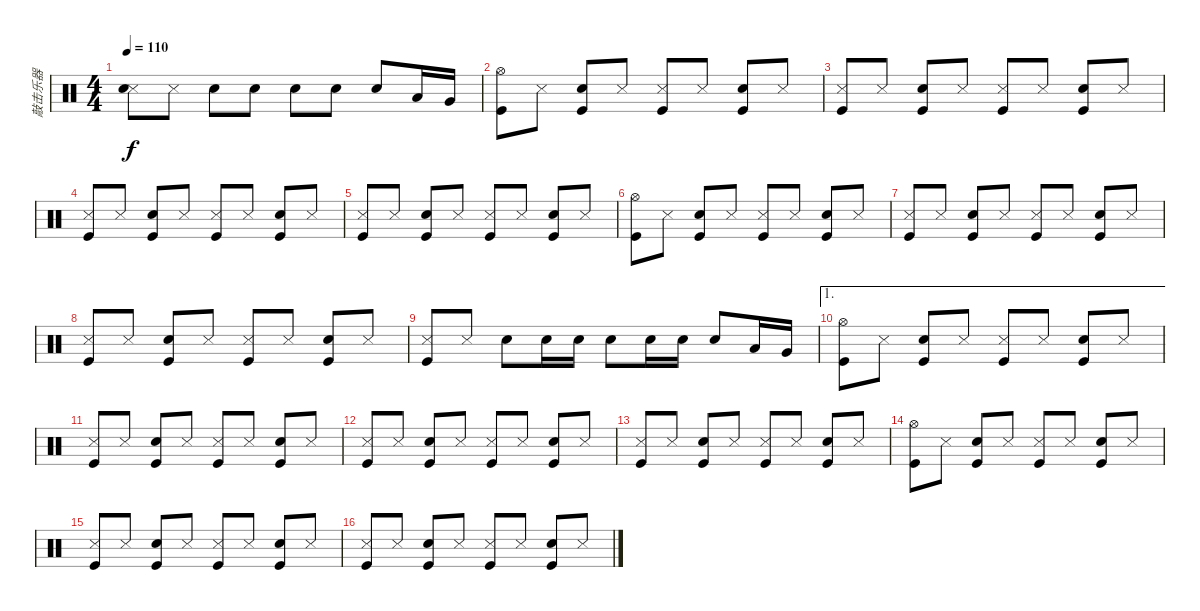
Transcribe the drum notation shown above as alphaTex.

\track ("敲击乐器" "敲击乐器") {instrument percussion}
\staff {score}
\articulation defaults
\ts (4 4)
\tempo 110
\clef neutral
\ks c
("Snare (side stick) 3" "Snare (hit) 2").8{dy f} "Snare (side stick) 3".8 "Snare (hit) 2".8 "Snare (hit) 2".8 "Snare (hit) 2".8 "Snare (hit) 2".8 "Snare (hit) 2".8 "Low Tom (hit)".16 "Very Low Tom (hit)".16 |
("Hi-Hat (open)" "Kick (hit)").8 "Snare (side stick) 3".8 ("Snare (hit) 2" "Kick (hit)").8 "Snare (side stick) 3".8 ("Snare (side stick) 3" "Kick (hit)").8 "Snare (side stick) 3".8 ("Snare (hit) 2" "Kick (hit)").8 "Snare (side stick) 3".8 |
("Snare (side stick) 3" "Kick (hit)").8 "Snare (side stick) 3".8 ("Snare (hit) 2" "Kick (hit)").8 "Snare (side stick) 3".8 ("Snare (side stick) 3" "Kick (hit)").8 "Snare (side stick) 3".8 ("Snare (hit) 2" "Kick (hit)").8 "Snare (side stick) 3".8 |
("Snare (side stick) 3" "Kick (hit)").8 "Snare (side stick) 3".8 ("Snare (hit) 2" "Kick (hit)").8 "Snare (side stick) 3".8 ("Snare (side stick) 3" "Kick (hit)").8 "Snare (side stick) 3".8 ("Snare (hit) 2" "Kick (hit)").8 "Snare (side stick) 3".8 |
("Snare (side stick) 3" "Kick (hit)").8 "Snare (side stick) 3".8 ("Snare (hit) 2" "Kick (hit)").8 "Snare (side stick) 3".8 ("Snare (side stick) 3" "Kick (hit)").8 "Snare (side stick) 3".8 ("Snare (hit) 2" "Kick (hit)").8 "Snare (side stick) 3".8 |
("Hi-Hat (open)" "Kick (hit)").8 "Snare (side stick) 3".8 ("Snare (hit) 2" "Kick (hit)").8 "Snare (side stick) 3".8 ("Snare (side stick) 3" "Kick (hit)").8 "Snare (side stick) 3".8 ("Snare (hit) 2" "Kick (hit)").8 "Snare (side stick) 3".8 |
("Snare (side stick) 3" "Kick (hit)").8 "Snare (side stick) 3".8 ("Snare (hit) 2" "Kick (hit)").8 "Snare (side stick) 3".8 ("Snare (side stick) 3" "Kick (hit)").8 "Snare (side stick) 3".8 ("Snare (hit) 2" "Kick (hit)").8 "Snare (side stick) 3".8 |
("Snare (side stick) 3" "Kick (hit)").8 "Snare (side stick) 3".8 ("Snare (hit) 2" "Kick (hit)").8 "Snare (side stick) 3".8 ("Snare (side stick) 3" "Kick (hit)").8 "Snare (side stick) 3".8 ("Snare (hit) 2" "Kick (hit)").8 "Snare (side stick) 3".8 |
("Snare (side stick) 3" "Kick (hit)").8 "Snare (side stick) 3".8 "Snare (hit) 2".8 "Snare (hit) 2".16 "Snare (hit) 2".16 "Snare (hit) 2".8 "Snare (hit) 2".16 "Snare (hit) 2".16 "Snare (hit) 2".8 "Low Tom (hit)".16 "Very Low Tom (hit)".16 |
\ae 1
("Hi-Hat (open)" "Kick (hit)").8 "Snare (side stick) 3".8 ("Snare (hit) 2" "Kick (hit)").8 "Snare (side stick) 3".8 ("Snare (side stick) 3" "Kick (hit)").8 "Snare (side stick) 3".8 ("Snare (hit) 2" "Kick (hit)").8 "Snare (side stick) 3".8 |
("Snare (side stick) 3" "Kick (hit)").8 "Snare (side stick) 3".8 ("Snare (hit) 2" "Kick (hit)").8 "Snare (side stick) 3".8 ("Snare (side stick) 3" "Kick (hit)").8 "Snare (side stick) 3".8 ("Snare (hit) 2" "Kick (hit)").8 "Snare (side stick) 3".8 |
("Snare (side stick) 3" "Kick (hit)").8 "Snare (side stick) 3".8 ("Snare (hit) 2" "Kick (hit)").8 "Snare (side stick) 3".8 ("Snare (side stick) 3" "Kick (hit)").8 "Snare (side stick) 3".8 ("Snare (hit) 2" "Kick (hit)").8 "Snare (side stick) 3".8 |
("Snare (side stick) 3" "Kick (hit)").8 "Snare (side stick) 3".8 ("Snare (hit) 2" "Kick (hit)").8 "Snare (side stick) 3".8 ("Snare (side stick) 3" "Kick (hit)").8 "Snare (side stick) 3".8 ("Snare (hit) 2" "Kick (hit)").8 "Snare (side stick) 3".8 |
("Hi-Hat (open)" "Kick (hit)").8 "Snare (side stick) 3".8 ("Snare (hit) 2" "Kick (hit)").8 "Snare (side stick) 3".8 ("Snare (side stick) 3" "Kick (hit)").8 "Snare (side stick) 3".8 ("Snare (hit) 2" "Kick (hit)").8 "Snare (side stick) 3".8 |
("Snare (side stick) 3" "Kick (hit)").8 "Snare (side stick) 3".8 ("Snare (hit) 2" "Kick (hit)").8 "Snare (side stick) 3".8 ("Snare (side stick) 3" "Kick (hit)").8 "Snare (side stick) 3".8 ("Snare (hit) 2" "Kick (hit)").8 "Snare (side stick) 3".8 |
("Snare (side stick) 3" "Kick (hit)").8 "Snare (side stick) 3".8 ("Snare (hit) 2" "Kick (hit)").8 "Snare (side stick) 3".8 ("Snare (side stick) 3" "Kick (hit)").8 "Snare (side stick) 3".8 ("Snare (hit) 2" "Kick (hit)").8 "Snare (side stick) 3".8
